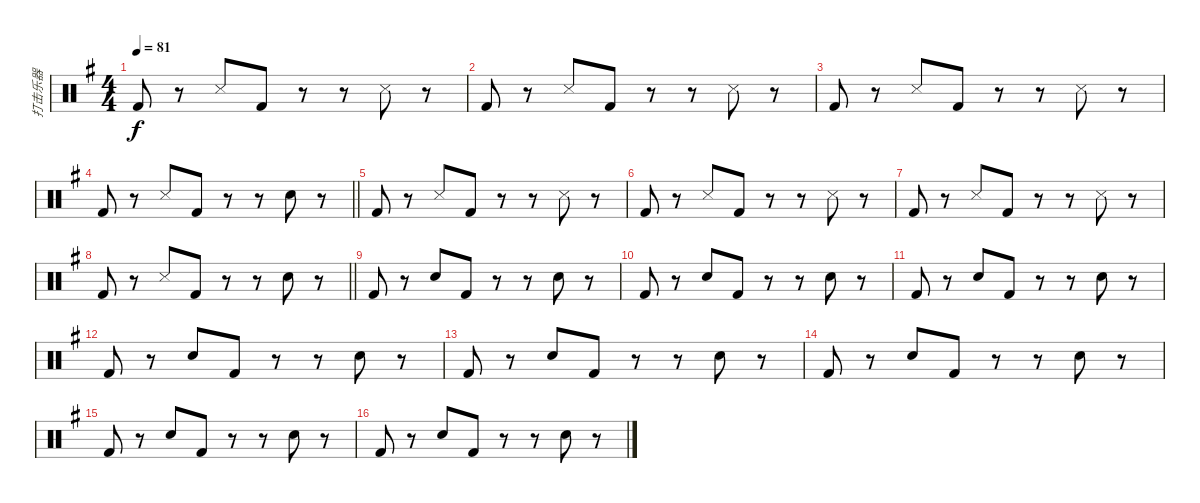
\track ("打击乐器" "打击乐器") {instrument percussion}
\staff {score}
\articulation defaults
\ts (4 4)
\tempo 81
\clef neutral
\ks g "Kick (hit) 2".8{dy f}
r.8 "Metronome (hit)".8 "Kick (hit) 2".8 r.8 r.8 "Metronome (hit)".8 r.8 |
"Kick (hit) 2".8 r.8 "Metronome (hit)".8 "Kick (hit) 2".8 r.8 r.8 "Metronome (hit)".8 r.8 |
"Kick (hit) 2".8 r.8 "Metronome (hit)".8 "Kick (hit) 2".8 r.8 r.8 "Metronome (hit)".8 r.8 |
\barLineRight lightlight "Kick (hit) 2".8
r.8 "Metronome (hit)".8 "Kick (hit) 2".8 r.8 r.8 "Electric Snare (hit)".8 r.8 |
"Kick (hit) 2".8 r.8 "Metronome (hit)".8 "Kick (hit) 2".8 r.8 r.8 "Metronome (hit)".8 r.8 |
"Kick (hit) 2".8 r.8 "Metronome (hit)".8 "Kick (hit) 2".8 r.8 r.8 "Metronome (hit)".8 r.8 |
"Kick (hit) 2".8 r.8 "Metronome (hit)".8 "Kick (hit) 2".8 r.8 r.8 "Metronome (hit)".8 r.8 |
\barLineRight lightlight "Kick (hit) 2".8
r.8 "Metronome (hit)".8 "Kick (hit) 2".8 r.8 r.8 "Electric Snare (hit)".8 r.8 |
"Kick (hit) 2".8 r.8 "Electric Snare (hit)".8 "Kick (hit) 2".8 r.8 r.8 "Electric Snare (hit)".8 r.8 |
"Kick (hit) 2".8 r.8 "Electric Snare (hit)".8 "Kick (hit) 2".8 r.8 r.8 "Electric Snare (hit)".8 r.8 |
"Kick (hit) 2".8 r.8 "Electric Snare (hit)".8 "Kick (hit) 2".8 r.8 r.8 "Electric Snare (hit)".8 r.8 |
"Kick (hit) 2".8 r.8 "Electric Snare (hit)".8 "Kick (hit) 2".8 r.8 r.8 "Electric Snare (hit)".8 r.8 |
"Kick (hit) 2".8 r.8 "Electric Snare (hit)".8 "Kick (hit) 2".8 r.8 r.8 "Electric Snare (hit)".8 r.8 |
"Kick (hit) 2".8 r.8 "Electric Snare (hit)".8 "Kick (hit) 2".8 r.8 r.8 "Electric Snare (hit)".8 r.8 |
"Kick (hit) 2".8 r.8 "Electric Snare (hit)".8 "Kick (hit) 2".8 r.8 r.8 "Electric Snare (hit)".8 r.8 |
"Kick (hit) 2".8 r.8 "Electric Snare (hit)".8 "Kick (hit) 2".8 r.8 r.8 "Electric Snare (hit)".8 r.8
